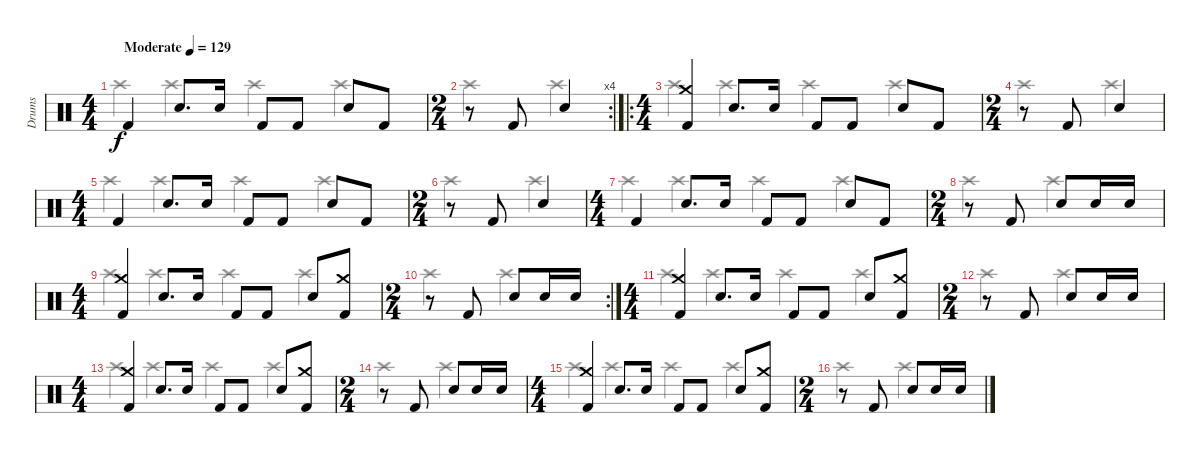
\track ("Drums" "Drums") {instrument percussion}
\staff {score}
\articulation defaults
\voice
\ts (4 4)
\tempo (129 "Moderate")
\clef neutral
\ks c "Kick (hit) 2".4{dy f} "Snare (hit) 2".8{d} "Snare (hit) 2".16 "Kick (hit) 2".8 "Kick (hit) 2".8 "Snare (hit) 2".8 "Kick (hit) 2".8
|
\rc 4
\ts (2 4)
r.8 "Kick (hit) 2".8 "Snare (hit) 2".4 |
\ro
\ts (4 4)
("Crash medium (hit)" "Kick (hit) 2").4 "Snare (hit) 2".8{d} "Snare (hit) 2".16 "Kick (hit) 2".8 "Kick (hit) 2".8 "Snare (hit) 2".8 "Kick (hit) 2".8 |
\ts (2 4)
r.8 "Kick (hit) 2".8 "Snare (hit) 2".4 |
\ts (4 4)
"Kick (hit) 2".4 "Snare (hit) 2".8{d} "Snare (hit) 2".16 "Kick (hit) 2".8 "Kick (hit) 2".8 "Snare (hit) 2".8 "Kick (hit) 2".8 |
\ts (2 4)
r.8 "Kick (hit) 2".8 "Snare (hit) 2".4 |
\ts (4 4)
"Kick (hit) 2".4 "Snare (hit) 2".8{d} "Snare (hit) 2".16 "Kick (hit) 2".8 "Kick (hit) 2".8 "Snare (hit) 2".8 "Kick (hit) 2".8 |
\ts (2 4)
r.8 "Kick (hit) 2".8 "Snare (hit) 2".8 "Snare (hit) 2".16 "Snare (hit) 2".16 |
\ts (4 4)
("Crash medium (hit)" "Kick (hit) 2").4 "Snare (hit) 2".8{d} "Snare (hit) 2".16 "Kick (hit) 2".8 "Kick (hit) 2".8 "Snare (hit) 2".8 ("Crash medium (hit)" "Kick (hit) 2").8 |
\rc 2
\ts (2 4)
r.8 "Kick (hit) 2".8 "Snare (hit) 2".8 "Snare (hit) 2".16 "Snare (hit) 2".16 |
\ts (4 4)
("Crash medium (hit)" "Kick (hit) 2").4 "Snare (hit) 2".8{d} "Snare (hit) 2".16 "Kick (hit) 2".8 "Kick (hit) 2".8 "Snare (hit) 2".8 ("Crash medium (hit)" "Kick (hit) 2").8 |
\ts (2 4)
r.8 "Kick (hit) 2".8 "Snare (hit) 2".8 "Snare (hit) 2".16 "Snare (hit) 2".16 |
\ts (4 4)
("Crash medium (hit)" "Kick (hit) 2").4 "Snare (hit) 2".8{d} "Snare (hit) 2".16 "Kick (hit) 2".8 "Kick (hit) 2".8 "Snare (hit) 2".8 ("Crash medium (hit)" "Kick (hit) 2").8 |
\ts (2 4)
r.8 "Kick (hit) 2".8 "Snare (hit) 2".8 "Snare (hit) 2".16 "Snare (hit) 2".16 |
\ts (4 4)
("Crash medium (hit)" "Kick (hit) 2").4 "Snare (hit) 2".8{d} "Snare (hit) 2".16 "Kick (hit) 2".8 "Kick (hit) 2".8 "Snare (hit) 2".8 ("Crash medium (hit)" "Kick (hit) 2").8 |
\ts (2 4)
r.8 "Kick (hit) 2".8 "Snare (hit) 2".8 "Snare (hit) 2".16 "Snare (hit) 2".16
\voice
\clef neutral
\ottava regular
\simile none
\ks c "Crash high (hit)".4{dy f} "Crash high (hit)".4 "Crash high (hit)".4 "Crash high (hit)".4
|
"Crash high (hit)".4 "Crash high (hit)".4 |
"Crash high (hit)".4 "Crash high (hit)".4 "Crash high (hit)".4 "Crash high (hit)".4 |
"Crash high (hit)".4 "Crash high (hit)".4 |
"Crash high (hit)".4 "Crash high (hit)".4 "Crash high (hit)".4 "Crash high (hit)".4 |
"Crash high (hit)".4 "Crash high (hit)".4 |
"Crash high (hit)".4 "Crash high (hit)".4 "Crash high (hit)".4 "Crash high (hit)".4 |
"Crash high (hit)".4 "Crash high (hit)".4 |
"Crash high (hit)".4 "Crash high (hit)".4 "Crash high (hit)".4 "Crash high (hit)".4 |
"Crash high (hit)".4 "Crash high (hit)".4 |
"Crash high (hit)".4 "Crash high (hit)".4 "Crash high (hit)".4 "Crash high (hit)".4 |
"Crash high (hit)".4 "Crash high (hit)".4 |
"Crash high (hit)".4 "Crash high (hit)".4 "Crash high (hit)".4 "Crash high (hit)".4 |
"Crash high (hit)".4 "Crash high (hit)".4 |
"Crash high (hit)".4 "Crash high (hit)".4 "Crash high (hit)".4 "Crash high (hit)".4 |
"Crash high (hit)".4 "Crash high (hit)".4
